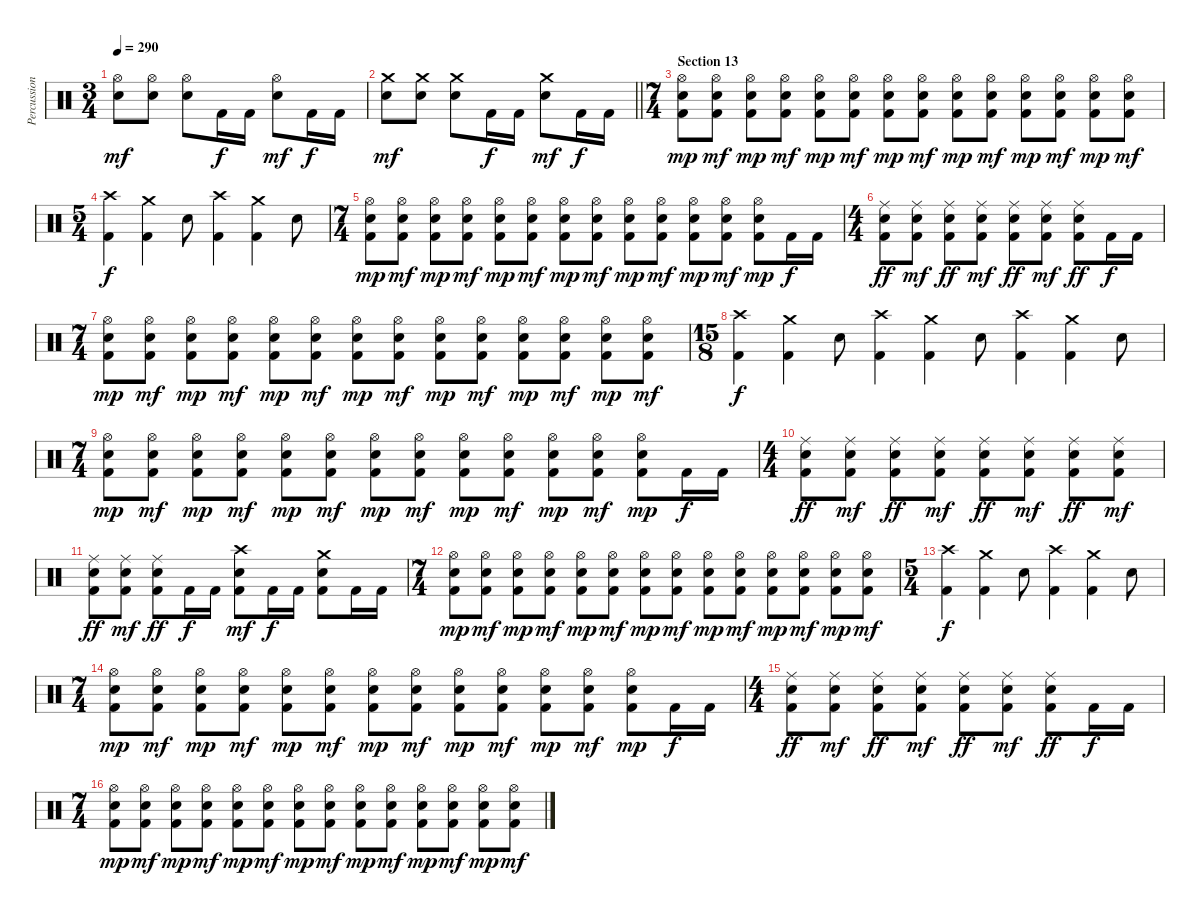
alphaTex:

\track ("Percussion" "Percussion") {instrument percussion}
\staff {score}
\articulation defaults
\ts (3 4)
\tempo 290
\clef neutral
\ks c
("Hi-Hat (open)" "Electric Snare (hit)").8{dy mf} ("Hi-Hat (open)" "Electric Snare (hit)").8 ("Hi-Hat (open)" "Electric Snare (hit)").8 "Kick (hit) 2".16{dy f} "Kick (hit) 2".16 ("Hi-Hat (open)" "Electric Snare (hit)").8{dy mf} "Kick (hit) 2".16{dy f} "Kick (hit) 2".16 |
\barLineRight lightlight
("Crash medium (hit)" "Electric Snare (hit)").8{dy mf} ("Crash medium (hit)" "Electric Snare (hit)").8 ("Crash medium (hit)" "Electric Snare (hit)").8 "Kick (hit) 2".16{dy f} "Kick (hit) 2".16 ("Crash medium (hit)" "Electric Snare (hit)").8{dy mf} "Kick (hit) 2".16{dy f} "Kick (hit) 2".16 |
\ts (7 4)
\section ("" "Section 13")
("Hi-Hat (open)" "Electric Snare (hit)" "Kick (hit) 2").8{dy mp} ("Hi-Hat (open)" "Electric Snare (hit)" "Kick (hit) 2").8{dy mf} ("Hi-Hat (open)" "Electric Snare (hit)" "Kick (hit) 2").8{dy mp} ("Hi-Hat (open)" "Electric Snare (hit)" "Kick (hit) 2").8{dy mf} ("Hi-Hat (open)" "Electric Snare (hit)" "Kick (hit) 2").8{dy mp} ("Hi-Hat (open)" "Electric Snare (hit)" "Kick (hit) 2").8{dy mf} ("Hi-Hat (open)" "Electric Snare (hit)" "Kick (hit) 2").8{dy mp} ("Hi-Hat (open)" "Electric Snare (hit)" "Kick (hit) 2").8{dy mf} ("Hi-Hat (open)" "Electric Snare (hit)" "Kick (hit) 2").8{dy mp} ("Hi-Hat (open)" "Electric Snare (hit)" "Kick (hit) 2").8{dy mf} ("Hi-Hat (open)" "Electric Snare (hit)" "Kick (hit) 2").8{dy mp} ("Hi-Hat (open)" "Electric Snare (hit)" "Kick (hit) 2").8{dy mf} ("Hi-Hat (open)" "Electric Snare (hit)" "Kick (hit) 2").8{dy mp} ("Hi-Hat (open)" "Electric Snare (hit)" "Kick (hit) 2").8{dy mf} |
\ts (5 4)
("Crash high (hit)" "Kick (hit) 2").4{dy f} ("Crash medium (hit)" "Kick (hit) 2").4 "Electric Snare (hit)".8 ("Crash high (hit)" "Kick (hit) 2").4 ("Crash medium (hit)" "Kick (hit) 2").4 "Electric Snare (hit)".8 |
\ts (7 4)
("Hi-Hat (open)" "Electric Snare (hit)" "Kick (hit) 2").8{dy mp} ("Hi-Hat (open)" "Electric Snare (hit)" "Kick (hit) 2").8{dy mf} ("Hi-Hat (open)" "Electric Snare (hit)" "Kick (hit) 2").8{dy mp} ("Hi-Hat (open)" "Electric Snare (hit)" "Kick (hit) 2").8{dy mf} ("Hi-Hat (open)" "Electric Snare (hit)" "Kick (hit) 2").8{dy mp} ("Hi-Hat (open)" "Electric Snare (hit)" "Kick (hit) 2").8{dy mf} ("Hi-Hat (open)" "Electric Snare (hit)" "Kick (hit) 2").8{dy mp} ("Hi-Hat (open)" "Electric Snare (hit)" "Kick (hit) 2").8{dy mf} ("Hi-Hat (open)" "Electric Snare (hit)" "Kick (hit) 2").8{dy mp} ("Hi-Hat (open)" "Electric Snare (hit)" "Kick (hit) 2").8{dy mf} ("Hi-Hat (open)" "Electric Snare (hit)" "Kick (hit) 2").8{dy mp} ("Hi-Hat (open)" "Electric Snare (hit)" "Kick (hit) 2").8{dy mf} ("Hi-Hat (open)" "Electric Snare (hit)" "Kick (hit) 2").8{dy mp} "Kick (hit) 2".16{dy f} "Kick (hit) 2".16 |
\ts (4 4)
("Ride (middle)" "Electric Snare (hit)" "Kick (hit) 2").8{dy ff} ("Ride (middle)" "Electric Snare (hit)" "Kick (hit) 2").8{dy mf} ("Ride (middle)" "Electric Snare (hit)" "Kick (hit) 2").8{dy ff} ("Ride (middle)" "Electric Snare (hit)" "Kick (hit) 2").8{dy mf} ("Ride (middle)" "Electric Snare (hit)" "Kick (hit) 2").8{dy ff} ("Ride (middle)" "Electric Snare (hit)" "Kick (hit) 2").8{dy mf} ("Ride (middle)" "Electric Snare (hit)" "Kick (hit) 2").8{dy ff} "Kick (hit) 2".16{dy f} "Kick (hit) 2".16 |
\ts (7 4)
("Hi-Hat (open)" "Electric Snare (hit)" "Kick (hit) 2").8{dy mp} ("Hi-Hat (open)" "Electric Snare (hit)" "Kick (hit) 2").8{dy mf} ("Hi-Hat (open)" "Electric Snare (hit)" "Kick (hit) 2").8{dy mp} ("Hi-Hat (open)" "Electric Snare (hit)" "Kick (hit) 2").8{dy mf} ("Hi-Hat (open)" "Electric Snare (hit)" "Kick (hit) 2").8{dy mp} ("Hi-Hat (open)" "Electric Snare (hit)" "Kick (hit) 2").8{dy mf} ("Hi-Hat (open)" "Electric Snare (hit)" "Kick (hit) 2").8{dy mp} ("Hi-Hat (open)" "Electric Snare (hit)" "Kick (hit) 2").8{dy mf} ("Hi-Hat (open)" "Electric Snare (hit)" "Kick (hit) 2").8{dy mp} ("Hi-Hat (open)" "Electric Snare (hit)" "Kick (hit) 2").8{dy mf} ("Hi-Hat (open)" "Electric Snare (hit)" "Kick (hit) 2").8{dy mp} ("Hi-Hat (open)" "Electric Snare (hit)" "Kick (hit) 2").8{dy mf} ("Hi-Hat (open)" "Electric Snare (hit)" "Kick (hit) 2").8{dy mp} ("Hi-Hat (open)" "Electric Snare (hit)" "Kick (hit) 2").8{dy mf} |
\ts (15 8)
("Crash high (hit)" "Kick (hit) 2").4{dy f} ("Crash medium (hit)" "Kick (hit) 2").4 "Electric Snare (hit)".8 ("Crash high (hit)" "Kick (hit) 2").4 ("Crash medium (hit)" "Kick (hit) 2").4 "Electric Snare (hit)".8 ("Crash high (hit)" "Kick (hit) 2").4 ("Crash medium (hit)" "Kick (hit) 2").4 "Electric Snare (hit)".8 |
\ts (7 4)
("Hi-Hat (open)" "Electric Snare (hit)" "Kick (hit) 2").8{dy mp} ("Hi-Hat (open)" "Electric Snare (hit)" "Kick (hit) 2").8{dy mf} ("Hi-Hat (open)" "Electric Snare (hit)" "Kick (hit) 2").8{dy mp} ("Hi-Hat (open)" "Electric Snare (hit)" "Kick (hit) 2").8{dy mf} ("Hi-Hat (open)" "Electric Snare (hit)" "Kick (hit) 2").8{dy mp} ("Hi-Hat (open)" "Electric Snare (hit)" "Kick (hit) 2").8{dy mf} ("Hi-Hat (open)" "Electric Snare (hit)" "Kick (hit) 2").8{dy mp} ("Hi-Hat (open)" "Electric Snare (hit)" "Kick (hit) 2").8{dy mf} ("Hi-Hat (open)" "Electric Snare (hit)" "Kick (hit) 2").8{dy mp} ("Hi-Hat (open)" "Electric Snare (hit)" "Kick (hit) 2").8{dy mf} ("Hi-Hat (open)" "Electric Snare (hit)" "Kick (hit) 2").8{dy mp} ("Hi-Hat (open)" "Electric Snare (hit)" "Kick (hit) 2").8{dy mf} ("Hi-Hat (open)" "Electric Snare (hit)" "Kick (hit) 2").8{dy mp} "Kick (hit) 2".16{dy f} "Kick (hit) 2".16 |
\ts (4 4)
("Ride (middle)" "Electric Snare (hit)" "Kick (hit) 2").8{dy ff} ("Ride (middle)" "Electric Snare (hit)" "Kick (hit) 2").8{dy mf} ("Ride (middle)" "Electric Snare (hit)" "Kick (hit) 2").8{dy ff} ("Ride (middle)" "Electric Snare (hit)" "Kick (hit) 2").8{dy mf} ("Ride (middle)" "Electric Snare (hit)" "Kick (hit) 2").8{dy ff} ("Ride (middle)" "Electric Snare (hit)" "Kick (hit) 2").8{dy mf} ("Ride (middle)" "Electric Snare (hit)" "Kick (hit) 2").8{dy ff} ("Ride (middle)" "Electric Snare (hit)" "Kick (hit) 2").8{dy mf} |
("Ride (middle)" "Electric Snare (hit)" "Kick (hit) 2").8{dy ff} ("Ride (middle)" "Electric Snare (hit)" "Kick (hit) 2").8{dy mf} ("Ride (middle)" "Electric Snare (hit)" "Kick (hit) 2").8{dy ff} "Kick (hit) 2".16{dy f} "Kick (hit) 2".16 ("Crash high (hit)" "Electric Snare (hit)" "Kick (hit) 2").8{dy mf} "Kick (hit) 2".16{dy f} "Kick (hit) 2".16 ("Crash medium (hit)" "Electric Snare (hit)" "Kick (hit) 2").8 "Kick (hit) 2".16 "Kick (hit) 2".16 |
\ts (7 4)
("Hi-Hat (open)" "Electric Snare (hit)" "Kick (hit) 2").8{dy mp} ("Hi-Hat (open)" "Electric Snare (hit)" "Kick (hit) 2").8{dy mf} ("Hi-Hat (open)" "Electric Snare (hit)" "Kick (hit) 2").8{dy mp} ("Hi-Hat (open)" "Electric Snare (hit)" "Kick (hit) 2").8{dy mf} ("Hi-Hat (open)" "Electric Snare (hit)" "Kick (hit) 2").8{dy mp} ("Hi-Hat (open)" "Electric Snare (hit)" "Kick (hit) 2").8{dy mf} ("Hi-Hat (open)" "Electric Snare (hit)" "Kick (hit) 2").8{dy mp} ("Hi-Hat (open)" "Electric Snare (hit)" "Kick (hit) 2").8{dy mf} ("Hi-Hat (open)" "Electric Snare (hit)" "Kick (hit) 2").8{dy mp} ("Hi-Hat (open)" "Electric Snare (hit)" "Kick (hit) 2").8{dy mf} ("Hi-Hat (open)" "Electric Snare (hit)" "Kick (hit) 2").8{dy mp} ("Hi-Hat (open)" "Electric Snare (hit)" "Kick (hit) 2").8{dy mf} ("Hi-Hat (open)" "Electric Snare (hit)" "Kick (hit) 2").8{dy mp} ("Hi-Hat (open)" "Electric Snare (hit)" "Kick (hit) 2").8{dy mf} |
\ts (5 4)
("Crash high (hit)" "Kick (hit) 2").4{dy f} ("Crash medium (hit)" "Kick (hit) 2").4 "Electric Snare (hit)".8 ("Crash high (hit)" "Kick (hit) 2").4 ("Crash medium (hit)" "Kick (hit) 2").4 "Electric Snare (hit)".8 |
\ts (7 4)
("Hi-Hat (open)" "Electric Snare (hit)" "Kick (hit) 2").8{dy mp} ("Hi-Hat (open)" "Electric Snare (hit)" "Kick (hit) 2").8{dy mf} ("Hi-Hat (open)" "Electric Snare (hit)" "Kick (hit) 2").8{dy mp} ("Hi-Hat (open)" "Electric Snare (hit)" "Kick (hit) 2").8{dy mf} ("Hi-Hat (open)" "Electric Snare (hit)" "Kick (hit) 2").8{dy mp} ("Hi-Hat (open)" "Electric Snare (hit)" "Kick (hit) 2").8{dy mf} ("Hi-Hat (open)" "Electric Snare (hit)" "Kick (hit) 2").8{dy mp} ("Hi-Hat (open)" "Electric Snare (hit)" "Kick (hit) 2").8{dy mf} ("Hi-Hat (open)" "Electric Snare (hit)" "Kick (hit) 2").8{dy mp} ("Hi-Hat (open)" "Electric Snare (hit)" "Kick (hit) 2").8{dy mf} ("Hi-Hat (open)" "Electric Snare (hit)" "Kick (hit) 2").8{dy mp} ("Hi-Hat (open)" "Electric Snare (hit)" "Kick (hit) 2").8{dy mf} ("Hi-Hat (open)" "Electric Snare (hit)" "Kick (hit) 2").8{dy mp} "Kick (hit) 2".16{dy f} "Kick (hit) 2".16 |
\ts (4 4)
("Ride (middle)" "Electric Snare (hit)" "Kick (hit) 2").8{dy ff} ("Ride (middle)" "Electric Snare (hit)" "Kick (hit) 2").8{dy mf} ("Ride (middle)" "Electric Snare (hit)" "Kick (hit) 2").8{dy ff} ("Ride (middle)" "Electric Snare (hit)" "Kick (hit) 2").8{dy mf} ("Ride (middle)" "Electric Snare (hit)" "Kick (hit) 2").8{dy ff} ("Ride (middle)" "Electric Snare (hit)" "Kick (hit) 2").8{dy mf} ("Ride (middle)" "Electric Snare (hit)" "Kick (hit) 2").8{dy ff} "Kick (hit) 2".16{dy f} "Kick (hit) 2".16 |
\ts (7 4)
("Hi-Hat (open)" "Electric Snare (hit)" "Kick (hit) 2").8{dy mp} ("Hi-Hat (open)" "Electric Snare (hit)" "Kick (hit) 2").8{dy mf} ("Hi-Hat (open)" "Electric Snare (hit)" "Kick (hit) 2").8{dy mp} ("Hi-Hat (open)" "Electric Snare (hit)" "Kick (hit) 2").8{dy mf} ("Hi-Hat (open)" "Electric Snare (hit)" "Kick (hit) 2").8{dy mp} ("Hi-Hat (open)" "Electric Snare (hit)" "Kick (hit) 2").8{dy mf} ("Hi-Hat (open)" "Electric Snare (hit)" "Kick (hit) 2").8{dy mp} ("Hi-Hat (open)" "Electric Snare (hit)" "Kick (hit) 2").8{dy mf} ("Hi-Hat (open)" "Electric Snare (hit)" "Kick (hit) 2").8{dy mp} ("Hi-Hat (open)" "Electric Snare (hit)" "Kick (hit) 2").8{dy mf} ("Hi-Hat (open)" "Electric Snare (hit)" "Kick (hit) 2").8{dy mp} ("Hi-Hat (open)" "Electric Snare (hit)" "Kick (hit) 2").8{dy mf} ("Hi-Hat (open)" "Electric Snare (hit)" "Kick (hit) 2").8{dy mp} ("Hi-Hat (open)" "Electric Snare (hit)" "Kick (hit) 2").8{dy mf}
